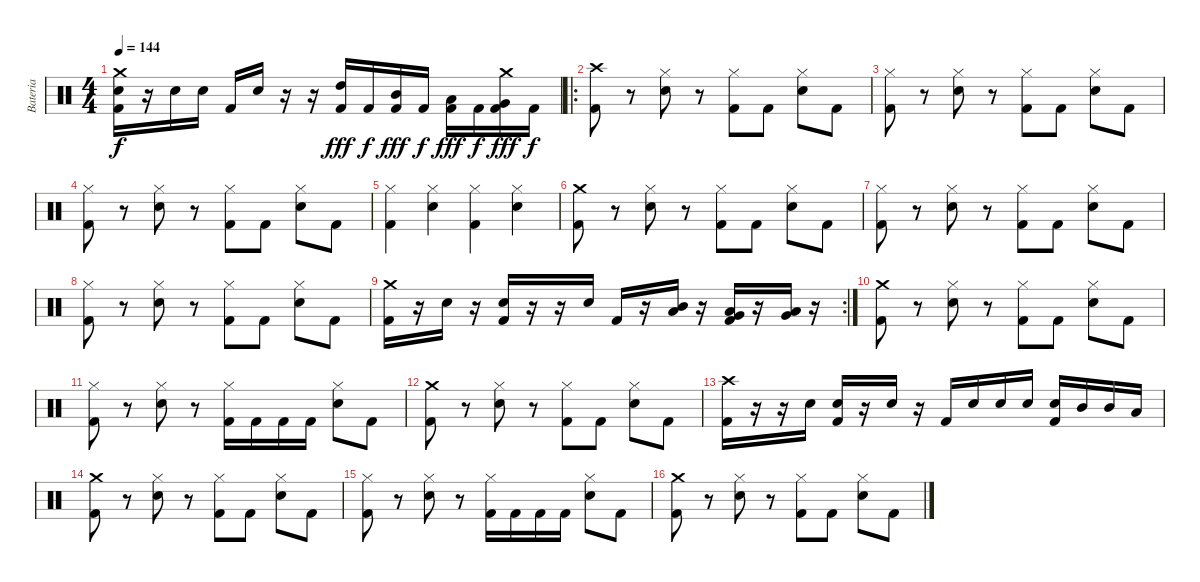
\track ("Bateria" "Bateria") {instrument percussion}
\staff {score}
\articulation defaults
\ts (4 4)
\tempo 144
\clef neutral
\ks c
("Crash medium (hit)" "Electric Snare (hit)" "Kick (hit) 2").16{dy f} r.16 "Electric Snare (hit)".16 "Electric Snare (hit)".16 "Kick (hit) 2".16 "Electric Snare (hit)".16 r.16 r.16 ("High Tom (hit)" "Kick (hit) 2").16{dy fff} "Kick (hit) 2".16{dy f} ("Mid Tom (hit)" "Kick (hit) 2").16{dy fff} "Kick (hit) 2".16{dy f} ("Low Tom (hit)" "Kick (hit) 2").16{dy fff} "Kick (hit) 2".16{dy f} ("Crash medium (hit)" "Very Low Tom (hit)" "Kick (hit) 2").16{dy fff} "Kick (hit) 2".16{dy f} |
\ro
("Crash high (hit)" "Kick (hit) 2").8 r.8 ("Hi-Hat (closed)" "Electric Snare (hit)").8 r.8 ("Hi-Hat (closed)" "Kick (hit) 2").8 "Kick (hit) 2".8 ("Hi-Hat (closed)" "Electric Snare (hit)").8 "Kick (hit) 2".8 |
("Hi-Hat (closed)" "Kick (hit) 2").8 r.8 ("Hi-Hat (closed)" "Electric Snare (hit)").8 r.8 ("Hi-Hat (closed)" "Kick (hit) 2").8 "Kick (hit) 2".8 ("Hi-Hat (closed)" "Electric Snare (hit)").8 "Kick (hit) 2".8 |
("Hi-Hat (closed)" "Kick (hit) 2").8 r.8 ("Hi-Hat (closed)" "Electric Snare (hit)").8 r.8 ("Hi-Hat (closed)" "Kick (hit) 2").8 "Kick (hit) 2".8 ("Hi-Hat (closed)" "Electric Snare (hit)").8 "Kick (hit) 2".8 |
("Hi-Hat (closed)" "Kick (hit) 2").4 ("Hi-Hat (closed)" "Electric Snare (hit)").4 ("Hi-Hat (closed)" "Kick (hit) 2").4 ("Hi-Hat (closed)" "Electric Snare (hit)").4 |
("Crash medium (hit)" "Kick (hit) 2").8 r.8 ("Hi-Hat (closed)" "Electric Snare (hit)").8 r.8 ("Hi-Hat (closed)" "Kick (hit) 2").8 "Kick (hit) 2".8 ("Hi-Hat (closed)" "Electric Snare (hit)").8 "Kick (hit) 2".8 |
("Hi-Hat (closed)" "Kick (hit) 2").8 r.8 ("Hi-Hat (closed)" "Electric Snare (hit)").8 r.8 ("Hi-Hat (closed)" "Kick (hit) 2").8 "Kick (hit) 2".8 ("Hi-Hat (closed)" "Electric Snare (hit)").8 "Kick (hit) 2".8 |
("Hi-Hat (closed)" "Kick (hit) 2").8 r.8 ("Hi-Hat (closed)" "Electric Snare (hit)").8 r.8 ("Hi-Hat (closed)" "Kick (hit) 2").8 "Kick (hit) 2".8 ("Hi-Hat (closed)" "Electric Snare (hit)").8 "Kick (hit) 2".8 |
\rc 2
("Crash medium (hit)" "Kick (hit) 2").16 r.16 "Electric Snare (hit)".16 r.16 ("Electric Snare (hit)" "Kick (hit) 2").16 r.16 r.16 "Electric Snare (hit)".16 "Kick (hit) 2".16 r.16 ("Low Tom (hit)" "Mid Tom (hit)").16 r.16 ("Very Low Tom (hit)" "Low Tom (hit)" "Kick (hit) 2").16 r.16 ("Low Floor Tom (hit)" "Very Low Tom (hit)").16 r.16 |
("Crash medium (hit)" "Kick (hit) 2").8 r.8 ("Hi-Hat (closed)" "Electric Snare (hit)").8 r.8 ("Hi-Hat (closed)" "Kick (hit) 2").8 "Kick (hit) 2".8 ("Hi-Hat (closed)" "Electric Snare (hit)").8 "Kick (hit) 2".8 |
("Hi-Hat (closed)" "Kick (hit) 2").8 r.8 ("Hi-Hat (closed)" "Electric Snare (hit)").8 r.8 ("Hi-Hat (closed)" "Kick (hit) 2").16 "Kick (hit) 2".16 "Kick (hit) 2".16 "Kick (hit) 2".16 ("Hi-Hat (closed)" "Electric Snare (hit)").8 "Kick (hit) 2".8 |
("Crash medium (hit)" "Kick (hit) 2").8 r.8 ("Hi-Hat (closed)" "Electric Snare (hit)").8 r.8 ("Hi-Hat (closed)" "Kick (hit) 2").8 "Kick (hit) 2".8 ("Hi-Hat (closed)" "Electric Snare (hit)").8 "Kick (hit) 2".8 |
("Crash high (hit)" "Kick (hit) 2").16 r.16 r.16 "Electric Snare (hit)".16 ("Electric Snare (hit)" "Kick (hit) 2").16 r.16 "Electric Snare (hit)".16 r.16 "Kick (hit) 2".16 "Electric Snare (hit)".16 "Electric Snare (hit)".16 "Electric Snare (hit)".16 ("Electric Snare (hit)" "Kick (hit) 2").16 "Mid Tom (hit)".16 "Mid Tom (hit)".16 "Low Tom (hit)".16 |
("Crash medium (hit)" "Kick (hit) 2").8 r.8 ("Hi-Hat (closed)" "Electric Snare (hit)").8 r.8 ("Hi-Hat (closed)" "Kick (hit) 2").8 "Kick (hit) 2".8 ("Hi-Hat (closed)" "Electric Snare (hit)").8 "Kick (hit) 2".8 |
("Hi-Hat (closed)" "Kick (hit) 2").8 r.8 ("Hi-Hat (closed)" "Electric Snare (hit)").8 r.8 ("Hi-Hat (closed)" "Kick (hit) 2").16 "Kick (hit) 2".16 "Kick (hit) 2".16 "Kick (hit) 2".16 ("Hi-Hat (closed)" "Electric Snare (hit)").8 "Kick (hit) 2".8 |
("Crash medium (hit)" "Kick (hit) 2").8 r.8 ("Hi-Hat (closed)" "Electric Snare (hit)").8 r.8 ("Hi-Hat (closed)" "Kick (hit) 2").8 "Kick (hit) 2".8 ("Hi-Hat (closed)" "Electric Snare (hit)").8 "Kick (hit) 2".8
